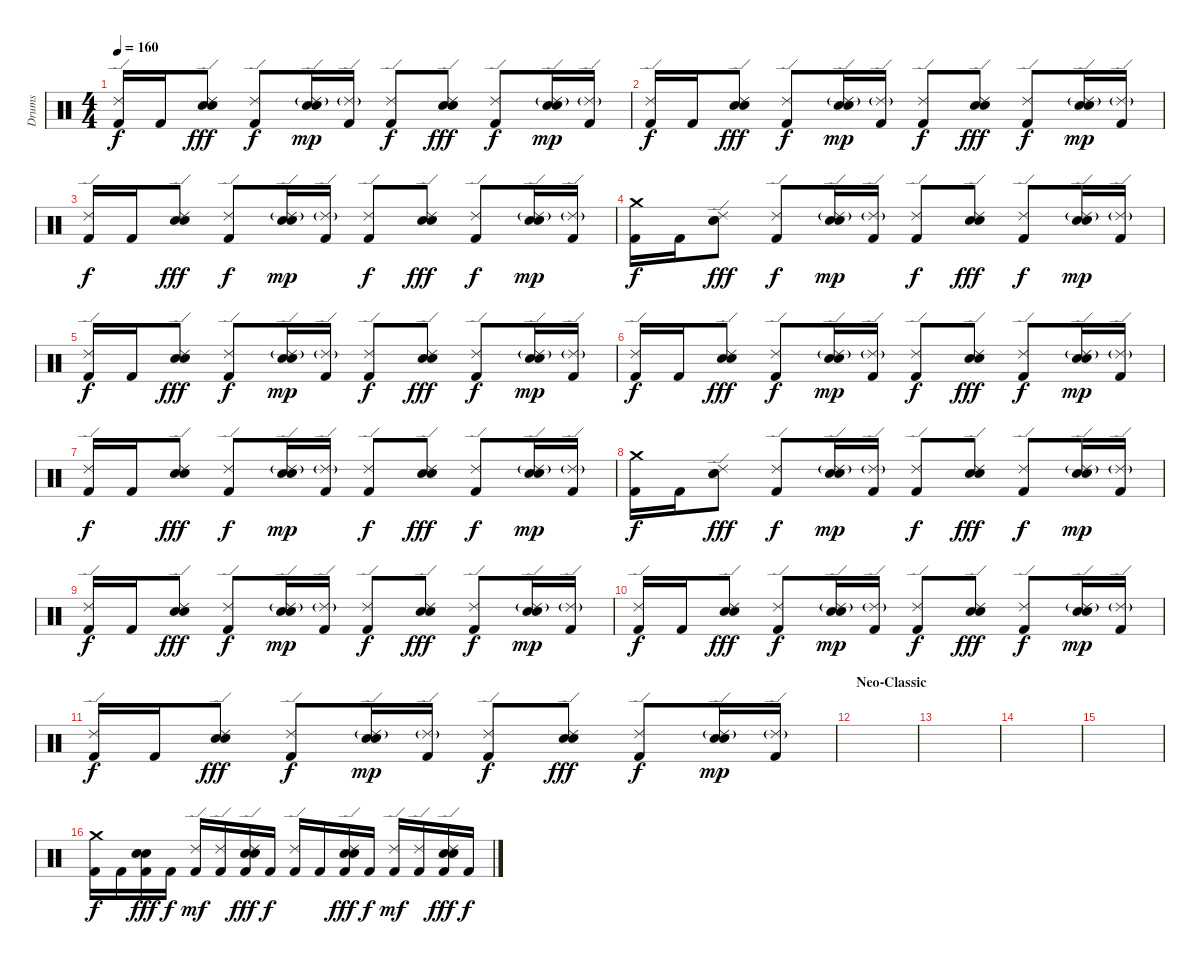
\track ("Drums" "Drums") {instrument percussion}
\staff {score}
\articulation defaults
\ts (4 4)
\tempo 160
\clef neutral
\ks c
("Kick (hit) 2" "Ride (edge) 2").16{dy f} "Kick (hit) 2".16 ("Snare (hit) 2" "Snare (hit) 2" "Ride (edge) 2").8{dy fff} ("Kick (hit) 2" "Ride (edge) 2").8{dy f} ("Snare (hit) 2" "Snare (hit) 2" "Ride (edge) 2"{g}).16{dy mp} ("Kick (hit) 2" "Ride (edge) 2"{g}).16 ("Kick (hit) 2" "Ride (edge) 2").8{dy f} ("Snare (hit) 2" "Snare (hit) 2" "Ride (edge) 2").8{dy fff} ("Kick (hit) 2" "Ride (edge) 2").8{dy f} ("Snare (hit) 2" "Snare (hit) 2" "Ride (edge) 2"{g}).16{dy mp} ("Kick (hit) 2" "Ride (edge) 2"{g}).16 |
("Kick (hit) 2" "Ride (edge) 2").16{dy f} "Kick (hit) 2".16 ("Snare (hit) 2" "Snare (hit) 2" "Ride (edge) 2").8{dy fff} ("Kick (hit) 2" "Ride (edge) 2").8{dy f} ("Snare (hit) 2" "Snare (hit) 2" "Ride (edge) 2"{g}).16{dy mp} ("Kick (hit) 2" "Ride (edge) 2"{g}).16 ("Kick (hit) 2" "Ride (edge) 2").8{dy f} ("Snare (hit) 2" "Snare (hit) 2" "Ride (edge) 2").8{dy fff} ("Kick (hit) 2" "Ride (edge) 2").8{dy f} ("Snare (hit) 2" "Snare (hit) 2" "Ride (edge) 2"{g}).16{dy mp} ("Kick (hit) 2" "Ride (edge) 2"{g}).16 |
("Kick (hit) 2" "Ride (edge) 2").16{dy f} "Kick (hit) 2".16 ("Snare (hit) 2" "Snare (hit) 2" "Ride (edge) 2").8{dy fff} ("Kick (hit) 2" "Ride (edge) 2").8{dy f} ("Snare (hit) 2" "Snare (hit) 2" "Ride (edge) 2"{g}).16{dy mp} ("Kick (hit) 2" "Ride (edge) 2"{g}).16 ("Kick (hit) 2" "Ride (edge) 2").8{dy f} ("Snare (hit) 2" "Snare (hit) 2" "Ride (edge) 2").8{dy fff} ("Kick (hit) 2" "Ride (edge) 2").8{dy f} ("Snare (hit) 2" "Snare (hit) 2" "Ride (edge) 2"{g}).16{dy mp} ("Kick (hit) 2" "Ride (edge) 2"{g}).16 |
("Kick (hit) 2" "Crash medium (hit)").16{dy f} "Kick (hit) 2".16 ("Snare (hit) 2" "Snare (hit) 2" "Ride (edge) 2").8{dy fff} ("Kick (hit) 2" "Ride (edge) 2").8{dy f} ("Snare (hit) 2" "Snare (hit) 2" "Ride (edge) 2"{g}).16{dy mp} ("Kick (hit) 2" "Ride (edge) 2"{g}).16 ("Kick (hit) 2" "Ride (edge) 2").8{dy f} ("Snare (hit) 2" "Snare (hit) 2" "Ride (edge) 2").8{dy fff} ("Kick (hit) 2" "Ride (edge) 2").8{dy f} ("Snare (hit) 2" "Snare (hit) 2" "Ride (edge) 2"{g}).16{dy mp} ("Kick (hit) 2" "Ride (edge) 2"{g}).16 |
("Kick (hit) 2" "Ride (edge) 2").16{dy f} "Kick (hit) 2".16 ("Snare (hit) 2" "Snare (hit) 2" "Ride (edge) 2").8{dy fff} ("Kick (hit) 2" "Ride (edge) 2").8{dy f} ("Snare (hit) 2" "Snare (hit) 2" "Ride (edge) 2"{g}).16{dy mp} ("Kick (hit) 2" "Ride (edge) 2"{g}).16 ("Kick (hit) 2" "Ride (edge) 2").8{dy f} ("Snare (hit) 2" "Snare (hit) 2" "Ride (edge) 2").8{dy fff} ("Kick (hit) 2" "Ride (edge) 2").8{dy f} ("Snare (hit) 2" "Snare (hit) 2" "Ride (edge) 2"{g}).16{dy mp} ("Kick (hit) 2" "Ride (edge) 2"{g}).16 |
("Kick (hit) 2" "Ride (edge) 2").16{dy f} "Kick (hit) 2".16 ("Snare (hit) 2" "Snare (hit) 2" "Ride (edge) 2").8{dy fff} ("Kick (hit) 2" "Ride (edge) 2").8{dy f} ("Snare (hit) 2" "Snare (hit) 2" "Ride (edge) 2"{g}).16{dy mp} ("Kick (hit) 2" "Ride (edge) 2"{g}).16 ("Kick (hit) 2" "Ride (edge) 2").8{dy f} ("Snare (hit) 2" "Snare (hit) 2" "Ride (edge) 2").8{dy fff} ("Kick (hit) 2" "Ride (edge) 2").8{dy f} ("Snare (hit) 2" "Snare (hit) 2" "Ride (edge) 2"{g}).16{dy mp} ("Kick (hit) 2" "Ride (edge) 2"{g}).16 |
("Kick (hit) 2" "Ride (edge) 2").16{dy f} "Kick (hit) 2".16 ("Snare (hit) 2" "Snare (hit) 2" "Ride (edge) 2").8{dy fff} ("Kick (hit) 2" "Ride (edge) 2").8{dy f} ("Snare (hit) 2" "Snare (hit) 2" "Ride (edge) 2"{g}).16{dy mp} ("Kick (hit) 2" "Ride (edge) 2"{g}).16 ("Kick (hit) 2" "Ride (edge) 2").8{dy f} ("Snare (hit) 2" "Snare (hit) 2" "Ride (edge) 2").8{dy fff} ("Kick (hit) 2" "Ride (edge) 2").8{dy f} ("Snare (hit) 2" "Snare (hit) 2" "Ride (edge) 2"{g}).16{dy mp} ("Kick (hit) 2" "Ride (edge) 2"{g}).16 |
("Kick (hit) 2" "Crash medium (hit)").16{dy f} "Kick (hit) 2".16 ("Snare (hit) 2" "Snare (hit) 2" "Ride (edge) 2").8{dy fff} ("Kick (hit) 2" "Ride (edge) 2").8{dy f} ("Snare (hit) 2" "Snare (hit) 2" "Ride (edge) 2"{g}).16{dy mp} ("Kick (hit) 2" "Ride (edge) 2"{g}).16 ("Kick (hit) 2" "Ride (edge) 2").8{dy f} ("Snare (hit) 2" "Snare (hit) 2" "Ride (edge) 2").8{dy fff} ("Kick (hit) 2" "Ride (edge) 2").8{dy f} ("Snare (hit) 2" "Snare (hit) 2" "Ride (edge) 2"{g}).16{dy mp} ("Kick (hit) 2" "Ride (edge) 2"{g}).16 |
("Kick (hit) 2" "Ride (edge) 2").16{dy f} "Kick (hit) 2".16 ("Snare (hit) 2" "Snare (hit) 2" "Ride (edge) 2").8{dy fff} ("Kick (hit) 2" "Ride (edge) 2").8{dy f} ("Snare (hit) 2" "Snare (hit) 2" "Ride (edge) 2"{g}).16{dy mp} ("Kick (hit) 2" "Ride (edge) 2"{g}).16 ("Kick (hit) 2" "Ride (edge) 2").8{dy f} ("Snare (hit) 2" "Snare (hit) 2" "Ride (edge) 2").8{dy fff} ("Kick (hit) 2" "Ride (edge) 2").8{dy f} ("Snare (hit) 2" "Snare (hit) 2" "Ride (edge) 2"{g}).16{dy mp} ("Kick (hit) 2" "Ride (edge) 2"{g}).16 |
("Kick (hit) 2" "Ride (edge) 2").16{dy f} "Kick (hit) 2".16 ("Snare (hit) 2" "Snare (hit) 2" "Ride (edge) 2").8{dy fff} ("Kick (hit) 2" "Ride (edge) 2").8{dy f} ("Snare (hit) 2" "Snare (hit) 2" "Ride (edge) 2"{g}).16{dy mp} ("Kick (hit) 2" "Ride (edge) 2"{g}).16 ("Kick (hit) 2" "Ride (edge) 2").8{dy f} ("Snare (hit) 2" "Snare (hit) 2" "Ride (edge) 2").8{dy fff} ("Kick (hit) 2" "Ride (edge) 2").8{dy f} ("Snare (hit) 2" "Snare (hit) 2" "Ride (edge) 2"{g}).16{dy mp} ("Kick (hit) 2" "Ride (edge) 2"{g}).16 |
("Kick (hit) 2" "Ride (edge) 2").16{dy f} "Kick (hit) 2".16 ("Snare (hit) 2" "Snare (hit) 2" "Ride (edge) 2").8{dy fff} ("Kick (hit) 2" "Ride (edge) 2").8{dy f} ("Snare (hit) 2" "Snare (hit) 2" "Ride (edge) 2"{g}).16{dy mp} ("Kick (hit) 2" "Ride (edge) 2"{g}).16 ("Kick (hit) 2" "Ride (edge) 2").8{dy f} ("Snare (hit) 2" "Snare (hit) 2" "Ride (edge) 2").8{dy fff} ("Kick (hit) 2" "Ride (edge) 2").8{dy f} ("Snare (hit) 2" "Snare (hit) 2" "Ride (edge) 2"{g}).16{dy mp} ("Kick (hit) 2" "Ride (edge) 2"{g}).16 |
\section ("" "Neo-Classic")
|
|
|
|
("Kick (hit) 2" "Crash medium (hit)").16{dy f} "Kick (hit) 2".16 ("Kick (hit) 2" "Snare (hit) 2" "Snare (hit) 2").16{dy fff} "Kick (hit) 2".16{dy f} ("Kick (hit) 2" "Ride (edge) 2").16{dy mf} ("Kick (hit) 2" "Ride (edge) 2").16 ("Kick (hit) 2" "Snare (hit) 2" "Ride (edge) 2" "Snare (hit) 2").16{dy fff} "Kick (hit) 2".16{dy f} ("Kick (hit) 2" "Ride (edge) 2").16 "Kick (hit) 2".16 ("Kick (hit) 2" "Snare (hit) 2" "Ride (edge) 2" "Snare (hit) 2").16{dy fff} "Kick (hit) 2".16{dy f} ("Kick (hit) 2" "Ride (edge) 2").16{dy mf} ("Kick (hit) 2" "Ride (edge) 2").16 ("Kick (hit) 2" "Snare (hit) 2" "Ride (edge) 2" "Snare (hit) 2").16{dy fff} "Kick (hit) 2".16{dy f}
